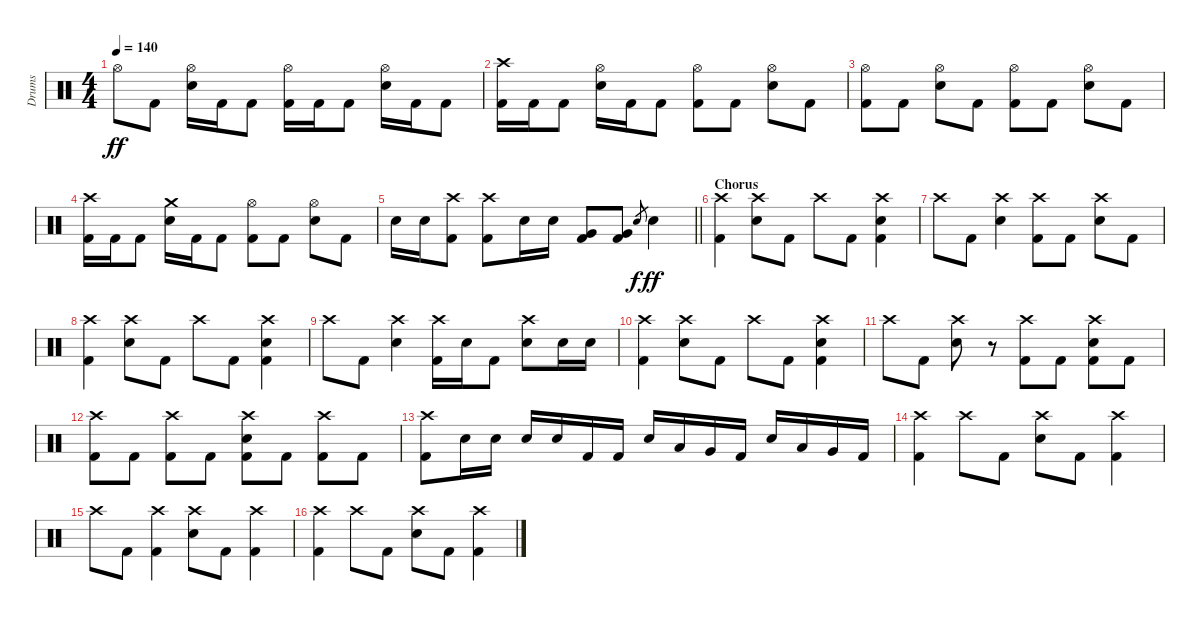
\track ("Drums" "Drums") {instrument percussion}
\staff {score}
\articulation defaults
\ts (4 4)
\tempo 140
\clef neutral
\ks c "Hi-Hat (open)".8{dy ff} "Kick (hit) 2".8
("Hi-Hat (open)" "Electric Snare (hit)").16 "Kick (hit) 2".16 "Kick (hit) 2".8 ("Hi-Hat (open)" "Kick (hit) 2").16 "Kick (hit) 2".16 "Kick (hit) 2".8 ("Hi-Hat (open)" "Electric Snare (hit)").16 "Kick (hit) 2".16 "Kick (hit) 2".8 |
("Crash high (hit)" "Kick (hit) 2").16 "Kick (hit) 2".16 "Kick (hit) 2".8 ("Hi-Hat (open)" "Electric Snare (hit)").16 "Kick (hit) 2".16 "Kick (hit) 2".8 ("Hi-Hat (open)" "Kick (hit) 2").8 "Kick (hit) 2".8 ("Hi-Hat (open)" "Electric Snare (hit)").8 "Kick (hit) 2".8 |
("Hi-Hat (open)" "Kick (hit) 2").8 "Kick (hit) 2".8 ("Hi-Hat (open)" "Electric Snare (hit)").8 "Kick (hit) 2".8 ("Hi-Hat (open)" "Kick (hit) 2").8 "Kick (hit) 2".8 ("Hi-Hat (open)" "Electric Snare (hit)").8 "Kick (hit) 2".8 |
("Crash high (hit)" "Kick (hit) 2").16 "Kick (hit) 2".16 "Kick (hit) 2".8 ("Crash medium (hit)" "Electric Snare (hit)").16 "Kick (hit) 2".16 "Kick (hit) 2".8 ("Hi-Hat (open)" "Kick (hit) 2").8 "Kick (hit) 2".8 ("Hi-Hat (open)" "Electric Snare (hit)").8 "Kick (hit) 2".8 |
\barLineRight lightlight "Electric Snare (hit)".16 "Electric Snare (hit)".16
("Crash high (hit)" "Kick (hit) 2").8 ("Crash high (hit)" "Kick (hit) 2").8 "Electric Snare (hit)".16 "Electric Snare (hit)".16 ("Very Low Tom (hit)" "Kick (hit) 2").8 ("Very Low Tom (hit)" "Kick (hit) 2").8 "Electric Snare (hit)".8{gr dy f} "Electric Snare (hit)".4{dy ff} |
\section ("" "Chorus")
("Crash high (hit)" "Kick (hit) 2").4 ("Crash high (hit)" "Electric Snare (hit)").8 "Kick (hit) 2".8 "Crash high (hit)".8 "Kick (hit) 2".8 ("Crash high (hit)" "Electric Snare (hit)" "Kick (hit) 2").4 |
"Crash high (hit)".8 "Kick (hit) 2".8 ("Crash high (hit)" "Electric Snare (hit)").4 ("Crash high (hit)" "Kick (hit) 2").8 "Kick (hit) 2".8 ("Crash high (hit)" "Electric Snare (hit)").8 "Kick (hit) 2".8 |
("Crash high (hit)" "Kick (hit) 2").4 ("Crash high (hit)" "Electric Snare (hit)").8 "Kick (hit) 2".8 "Crash high (hit)".8 "Kick (hit) 2".8 ("Crash high (hit)" "Electric Snare (hit)" "Kick (hit) 2").4 |
"Crash high (hit)".8 "Kick (hit) 2".8 ("Crash high (hit)" "Electric Snare (hit)").4 ("Crash high (hit)" "Kick (hit) 2").16 "Electric Snare (hit)".16 "Kick (hit) 2".8 ("Crash high (hit)" "Electric Snare (hit)").8 "Electric Snare (hit)".16 "Electric Snare (hit)".16 |
("Crash high (hit)" "Kick (hit) 2").4 ("Crash high (hit)" "Electric Snare (hit)").8 "Kick (hit) 2".8 "Crash high (hit)".8 "Kick (hit) 2".8 ("Crash high (hit)" "Electric Snare (hit)" "Kick (hit) 2").4 |
"Crash high (hit)".8 "Kick (hit) 2".8 ("Crash high (hit)" "Electric Snare (hit)").8 r.8 ("Crash high (hit)" "Kick (hit) 2").8 "Kick (hit) 2".8 ("Crash high (hit)" "Electric Snare (hit)" "Kick (hit) 2").8 "Kick (hit) 2".8 |
("Crash high (hit)" "Kick (hit) 2").8 "Kick (hit) 2".8 ("Crash high (hit)" "Kick (hit) 2").8 "Kick (hit) 2".8 ("Crash high (hit)" "Electric Snare (hit)" "Kick (hit) 2").8 "Kick (hit) 2".8 ("Crash high (hit)" "Kick (hit) 2").8 "Kick (hit) 2".8 |
("Crash high (hit)" "Kick (hit) 2").8 "Electric Snare (hit)".16 "Electric Snare (hit)".16 "Electric Snare (hit)".16 "Electric Snare (hit)".16 "Kick (hit) 2".16 "Kick (hit) 2".16 "Electric Snare (hit)".16 "Low Tom (hit)".16 "Very Low Tom (hit)".16 "Kick (hit) 2".16 "Electric Snare (hit)".16 "Low Tom (hit)".16 "Very Low Tom (hit)".16 "Kick (hit) 2".16 |
("Crash high (hit)" "Kick (hit) 2").4 "Crash high (hit)".8 "Kick (hit) 2".8 ("Crash high (hit)" "Electric Snare (hit)").8 "Kick (hit) 2".8 ("Crash high (hit)" "Kick (hit) 2").4 |
"Crash high (hit)".8 "Kick (hit) 2".8 ("Crash high (hit)" "Kick (hit) 2").4 ("Crash high (hit)" "Electric Snare (hit)").8 "Kick (hit) 2".8 ("Crash high (hit)" "Kick (hit) 2").4 |
("Crash high (hit)" "Kick (hit) 2").4 "Crash high (hit)".8 "Kick (hit) 2".8 ("Crash high (hit)" "Electric Snare (hit)").8 "Kick (hit) 2".8 ("Crash high (hit)" "Kick (hit) 2").4
